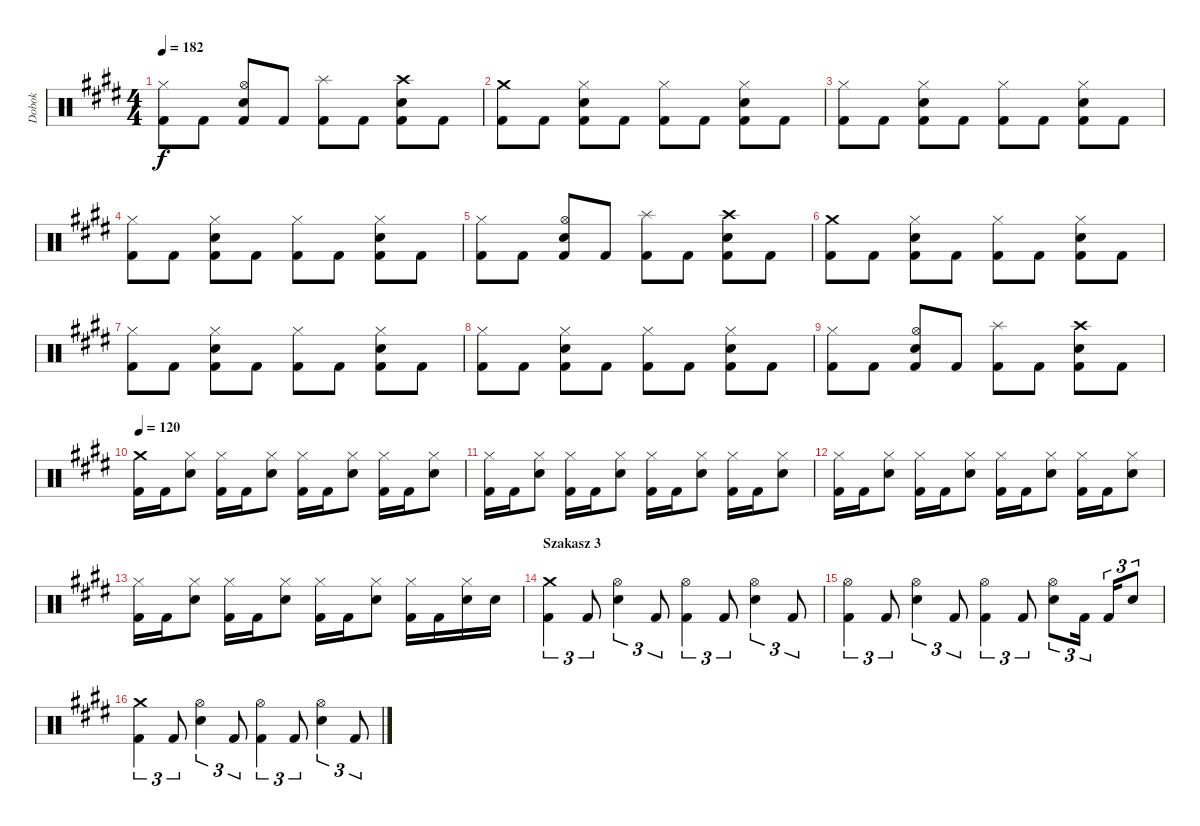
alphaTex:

\track ("Dobok" "Dobok") {instrument percussion}
\staff {score}
\articulation defaults
\ts (4 4)
\tempo 182
\clef neutral
\ks c#minor
("Hi-Hat (closed)" "Kick (hit) 2").8{dy f} "Kick (hit) 2".8 ("Hi-Hat (open)" "Snare (hit) 2" "Kick (hit) 2").8 "Kick (hit) 2".8 ("Splash (hit)" "Kick (hit) 2").8 "Kick (hit) 2".8 ("Crash high (hit)" "Snare (hit) 2" "Kick (hit) 2").8 "Kick (hit) 2".8 |
("Crash medium (hit)" "Kick (hit) 2").8 "Kick (hit) 2".8 ("Hi-Hat (closed)" "Snare (hit) 2" "Kick (hit) 2").8 "Kick (hit) 2".8 ("Hi-Hat (closed)" "Kick (hit) 2").8 "Kick (hit) 2".8 ("Hi-Hat (closed)" "Snare (hit) 2" "Kick (hit) 2").8 "Kick (hit) 2".8 |
("Hi-Hat (closed)" "Kick (hit) 2").8 "Kick (hit) 2".8 ("Hi-Hat (closed)" "Snare (hit) 2" "Kick (hit) 2").8 "Kick (hit) 2".8 ("Hi-Hat (closed)" "Kick (hit) 2").8 "Kick (hit) 2".8 ("Hi-Hat (closed)" "Snare (hit) 2" "Kick (hit) 2").8 "Kick (hit) 2".8 |
("Hi-Hat (closed)" "Kick (hit) 2").8 "Kick (hit) 2".8 ("Hi-Hat (closed)" "Snare (hit) 2" "Kick (hit) 2").8 "Kick (hit) 2".8 ("Hi-Hat (closed)" "Kick (hit) 2").8 "Kick (hit) 2".8 ("Hi-Hat (closed)" "Snare (hit) 2" "Kick (hit) 2").8 "Kick (hit) 2".8 |
("Hi-Hat (closed)" "Kick (hit) 2").8 "Kick (hit) 2".8 ("Hi-Hat (open)" "Snare (hit) 2" "Kick (hit) 2").8 "Kick (hit) 2".8 ("Splash (hit)" "Kick (hit) 2").8 "Kick (hit) 2".8 ("Crash high (hit)" "Snare (hit) 2" "Kick (hit) 2").8 "Kick (hit) 2".8 |
("Crash medium (hit)" "Kick (hit) 2").8 "Kick (hit) 2".8 ("Hi-Hat (closed)" "Snare (hit) 2" "Kick (hit) 2").8 "Kick (hit) 2".8 ("Hi-Hat (closed)" "Kick (hit) 2").8 "Kick (hit) 2".8 ("Hi-Hat (closed)" "Snare (hit) 2" "Kick (hit) 2").8 "Kick (hit) 2".8 |
("Hi-Hat (closed)" "Kick (hit) 2").8 "Kick (hit) 2".8 ("Hi-Hat (closed)" "Snare (hit) 2" "Kick (hit) 2").8 "Kick (hit) 2".8 ("Hi-Hat (closed)" "Kick (hit) 2").8 "Kick (hit) 2".8 ("Hi-Hat (closed)" "Snare (hit) 2" "Kick (hit) 2").8 "Kick (hit) 2".8 |
("Hi-Hat (closed)" "Kick (hit) 2").8 "Kick (hit) 2".8 ("Hi-Hat (closed)" "Snare (hit) 2" "Kick (hit) 2").8 "Kick (hit) 2".8 ("Hi-Hat (closed)" "Kick (hit) 2").8 "Kick (hit) 2".8 ("Hi-Hat (closed)" "Snare (hit) 2" "Kick (hit) 2").8 "Kick (hit) 2".8 |
("Hi-Hat (closed)" "Kick (hit) 2").8 "Kick (hit) 2".8 ("Hi-Hat (open)" "Snare (hit) 2" "Kick (hit) 2").8 "Kick (hit) 2".8 ("Splash (hit)" "Kick (hit) 2").8 "Kick (hit) 2".8 ("Crash high (hit)" "Snare (hit) 2" "Kick (hit) 2").8 "Kick (hit) 2".8 |
\tempo 120
("Crash medium (hit)" "Kick (hit) 2").16 "Kick (hit) 2".16 ("Hi-Hat (closed)" "Snare (hit) 2").8 ("Hi-Hat (closed)" "Kick (hit) 2").16 "Kick (hit) 2".16 ("Hi-Hat (closed)" "Snare (hit) 2").8 ("Hi-Hat (closed)" "Kick (hit) 2").16 "Kick (hit) 2".16 ("Hi-Hat (closed)" "Snare (hit) 2").8 ("Hi-Hat (closed)" "Kick (hit) 2").16 "Kick (hit) 2".16 ("Hi-Hat (closed)" "Snare (hit) 2").8 |
("Hi-Hat (closed)" "Kick (hit) 2").16 "Kick (hit) 2".16 ("Hi-Hat (closed)" "Snare (hit) 2").8 ("Hi-Hat (closed)" "Kick (hit) 2").16 "Kick (hit) 2".16 ("Hi-Hat (closed)" "Snare (hit) 2").8 ("Hi-Hat (closed)" "Kick (hit) 2").16 "Kick (hit) 2".16 ("Hi-Hat (closed)" "Snare (hit) 2").8 ("Hi-Hat (closed)" "Kick (hit) 2").16 "Kick (hit) 2".16 ("Hi-Hat (closed)" "Snare (hit) 2").8 |
("Hi-Hat (closed)" "Kick (hit) 2").16 "Kick (hit) 2".16 ("Hi-Hat (closed)" "Snare (hit) 2").8 ("Hi-Hat (closed)" "Kick (hit) 2").16 "Kick (hit) 2".16 ("Hi-Hat (closed)" "Snare (hit) 2").8 ("Hi-Hat (closed)" "Kick (hit) 2").16 "Kick (hit) 2".16 ("Hi-Hat (closed)" "Snare (hit) 2").8 ("Hi-Hat (closed)" "Kick (hit) 2").16 "Kick (hit) 2".16 ("Hi-Hat (closed)" "Snare (hit) 2").8 |
("Hi-Hat (closed)" "Kick (hit) 2").16 "Kick (hit) 2".16 ("Hi-Hat (closed)" "Snare (hit) 2").8 ("Hi-Hat (closed)" "Kick (hit) 2").16 "Kick (hit) 2".16 ("Hi-Hat (closed)" "Snare (hit) 2").8 ("Hi-Hat (closed)" "Kick (hit) 2").16 "Kick (hit) 2".16 ("Hi-Hat (closed)" "Snare (hit) 2").8 ("Hi-Hat (closed)" "Kick (hit) 2").16 "Kick (hit) 2".16 ("Hi-Hat (closed)" "Snare (hit) 2").16 "Snare (hit) 2".16 |
\section ("" "Szakasz 3")
("Crash medium (hit)" "Kick (hit) 2").4{tu (3 2)} "Kick (hit) 2".8{tu (3 2)} ("Hi-Hat (open)" "Snare (hit) 2").4{tu (3 2)} "Kick (hit) 2".8{tu (3 2)} ("Hi-Hat (open)" "Kick (hit) 2").4{tu (3 2)} "Kick (hit) 2".8{tu (3 2)} ("Hi-Hat (open)" "Snare (hit) 2").4{tu (3 2)} "Kick (hit) 2".8{tu (3 2)} |
("Hi-Hat (open)" "Kick (hit) 2").4{tu (3 2)} "Kick (hit) 2".8{tu (3 2)} ("Hi-Hat (open)" "Snare (hit) 2").4{tu (3 2)} "Kick (hit) 2".8{tu (3 2)} ("Hi-Hat (open)" "Kick (hit) 2").4{tu (3 2)} "Kick (hit) 2".8{tu (3 2)} ("Hi-Hat (open)" "Snare (hit) 2").8{tu (3 2)} "Kick (hit) 2".16{tu (3 2)} "Kick (hit) 2".16{tu (3 2)} "Snare (hit) 2".8{tu (3 2)} |
("Crash medium (hit)" "Kick (hit) 2").4{tu (3 2)} "Kick (hit) 2".8{tu (3 2)} ("Hi-Hat (open)" "Snare (hit) 2").4{tu (3 2)} "Kick (hit) 2".8{tu (3 2)} ("Hi-Hat (open)" "Kick (hit) 2").4{tu (3 2)} "Kick (hit) 2".8{tu (3 2)} ("Hi-Hat (open)" "Snare (hit) 2").4{tu (3 2)} "Kick (hit) 2".8{tu (3 2)}
